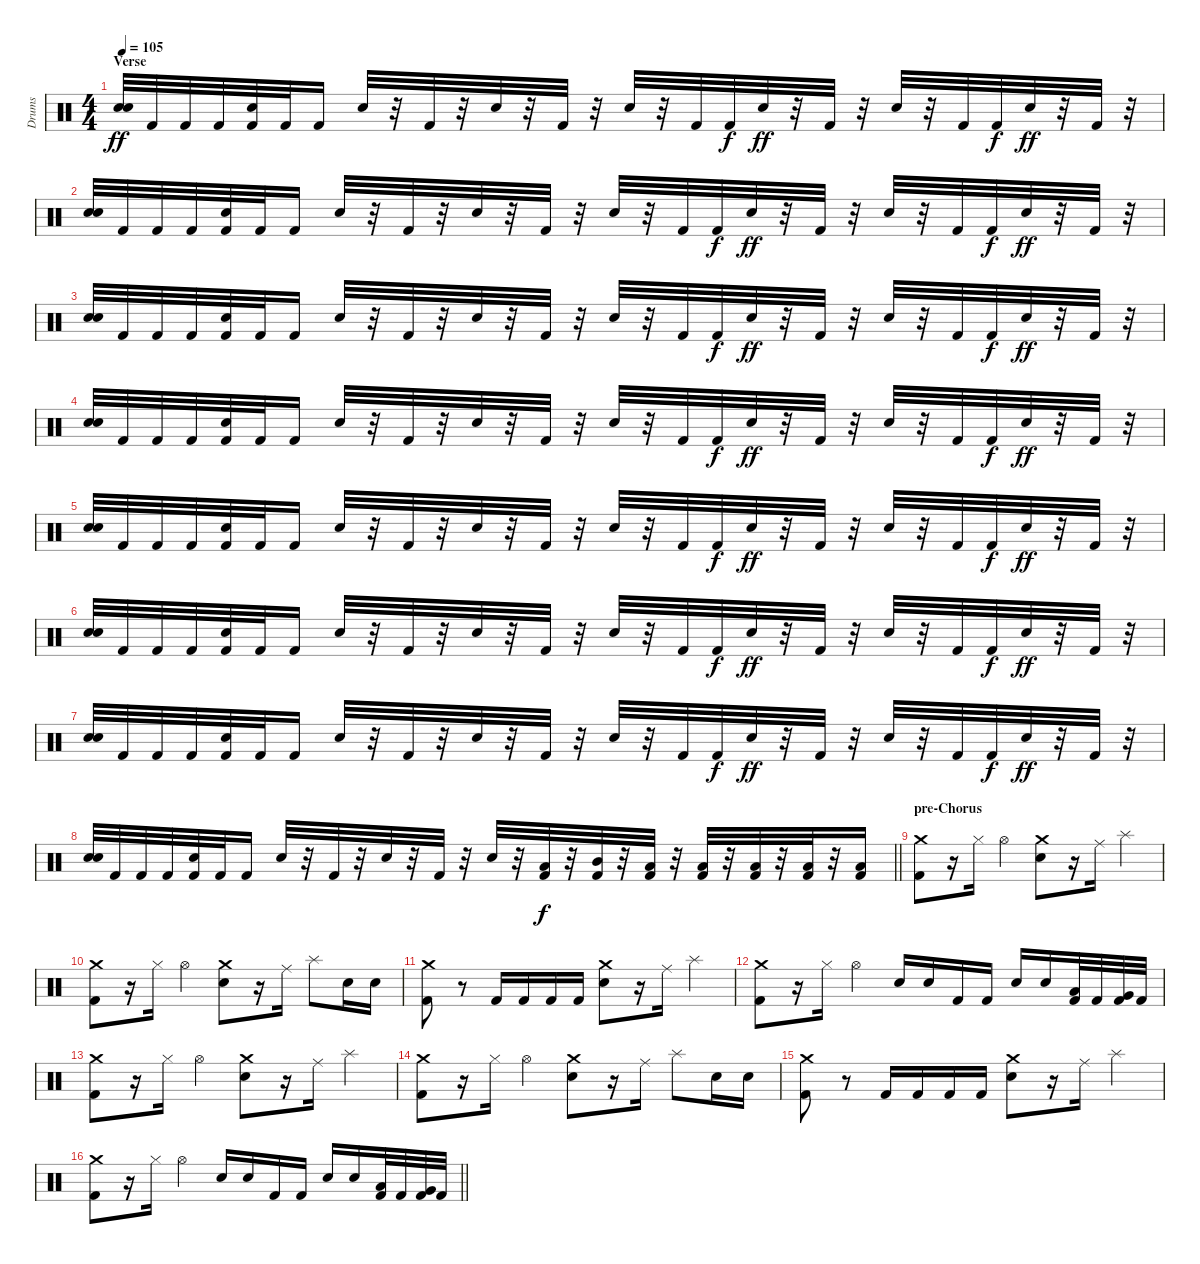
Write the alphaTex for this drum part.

\track ("Drums" "Drums") {instrument percussion}
\staff {score}
\articulation defaults
\ts (4 4)
\section ("" "Verse")
\tempo 105
\clef neutral
\ks c
("Snare (hit) 2" "Snare (hit) 2").32{dy ff} "Kick (hit) 2".32 "Kick (hit) 2".32 "Kick (hit) 2".32 ("Snare (hit) 2" "Kick (hit) 2").32 "Kick (hit) 2".32 "Kick (hit) 2".16 "Snare (hit) 2".32 r.32 "Kick (hit) 2".32 r.32 "Snare (hit) 2".32 r.32 "Kick (hit) 2".32 r.32 "Snare (hit) 2".32 r.32 "Kick (hit) 2".32 "Kick (hit) 2".32{dy f} "Snare (hit) 2".32{dy ff} r.32 "Kick (hit) 2".32 r.32 "Snare (hit) 2".32 r.32 "Kick (hit) 2".32 "Kick (hit) 2".32{dy f} "Snare (hit) 2".32{dy ff} r.32 "Kick (hit) 2".32 r.32 |
("Snare (hit) 2" "Snare (hit) 2").32 "Kick (hit) 2".32 "Kick (hit) 2".32 "Kick (hit) 2".32 ("Snare (hit) 2" "Kick (hit) 2").32 "Kick (hit) 2".32 "Kick (hit) 2".16 "Snare (hit) 2".32 r.32 "Kick (hit) 2".32 r.32 "Snare (hit) 2".32 r.32 "Kick (hit) 2".32 r.32 "Snare (hit) 2".32 r.32 "Kick (hit) 2".32 "Kick (hit) 2".32{dy f} "Snare (hit) 2".32{dy ff} r.32 "Kick (hit) 2".32 r.32 "Snare (hit) 2".32 r.32 "Kick (hit) 2".32 "Kick (hit) 2".32{dy f} "Snare (hit) 2".32{dy ff} r.32 "Kick (hit) 2".32 r.32 |
("Snare (hit) 2" "Snare (hit) 2").32 "Kick (hit) 2".32 "Kick (hit) 2".32 "Kick (hit) 2".32 ("Snare (hit) 2" "Kick (hit) 2").32 "Kick (hit) 2".32 "Kick (hit) 2".16 "Snare (hit) 2".32 r.32 "Kick (hit) 2".32 r.32 "Snare (hit) 2".32 r.32 "Kick (hit) 2".32 r.32 "Snare (hit) 2".32 r.32 "Kick (hit) 2".32 "Kick (hit) 2".32{dy f} "Snare (hit) 2".32{dy ff} r.32 "Kick (hit) 2".32 r.32 "Snare (hit) 2".32 r.32 "Kick (hit) 2".32 "Kick (hit) 2".32{dy f} "Snare (hit) 2".32{dy ff} r.32 "Kick (hit) 2".32 r.32 |
("Snare (hit) 2" "Snare (hit) 2").32 "Kick (hit) 2".32 "Kick (hit) 2".32 "Kick (hit) 2".32 ("Snare (hit) 2" "Kick (hit) 2").32 "Kick (hit) 2".32 "Kick (hit) 2".16 "Snare (hit) 2".32 r.32 "Kick (hit) 2".32 r.32 "Snare (hit) 2".32 r.32 "Kick (hit) 2".32 r.32 "Snare (hit) 2".32 r.32 "Kick (hit) 2".32 "Kick (hit) 2".32{dy f} "Snare (hit) 2".32{dy ff} r.32 "Kick (hit) 2".32 r.32 "Snare (hit) 2".32 r.32 "Kick (hit) 2".32 "Kick (hit) 2".32{dy f} "Snare (hit) 2".32{dy ff} r.32 "Kick (hit) 2".32 r.32 |
("Snare (hit) 2" "Snare (hit) 2").32 "Kick (hit) 2".32 "Kick (hit) 2".32 "Kick (hit) 2".32 ("Snare (hit) 2" "Kick (hit) 2").32 "Kick (hit) 2".32 "Kick (hit) 2".16 "Snare (hit) 2".32 r.32 "Kick (hit) 2".32 r.32 "Snare (hit) 2".32 r.32 "Kick (hit) 2".32 r.32 "Snare (hit) 2".32 r.32 "Kick (hit) 2".32 "Kick (hit) 2".32{dy f} "Snare (hit) 2".32{dy ff} r.32 "Kick (hit) 2".32 r.32 "Snare (hit) 2".32 r.32 "Kick (hit) 2".32 "Kick (hit) 2".32{dy f} "Snare (hit) 2".32{dy ff} r.32 "Kick (hit) 2".32 r.32 |
("Snare (hit) 2" "Snare (hit) 2").32 "Kick (hit) 2".32 "Kick (hit) 2".32 "Kick (hit) 2".32 ("Snare (hit) 2" "Kick (hit) 2").32 "Kick (hit) 2".32 "Kick (hit) 2".16 "Snare (hit) 2".32 r.32 "Kick (hit) 2".32 r.32 "Snare (hit) 2".32 r.32 "Kick (hit) 2".32 r.32 "Snare (hit) 2".32 r.32 "Kick (hit) 2".32 "Kick (hit) 2".32{dy f} "Snare (hit) 2".32{dy ff} r.32 "Kick (hit) 2".32 r.32 "Snare (hit) 2".32 r.32 "Kick (hit) 2".32 "Kick (hit) 2".32{dy f} "Snare (hit) 2".32{dy ff} r.32 "Kick (hit) 2".32 r.32 |
("Snare (hit) 2" "Snare (hit) 2").32 "Kick (hit) 2".32 "Kick (hit) 2".32 "Kick (hit) 2".32 ("Snare (hit) 2" "Kick (hit) 2").32 "Kick (hit) 2".32 "Kick (hit) 2".16 "Snare (hit) 2".32 r.32 "Kick (hit) 2".32 r.32 "Snare (hit) 2".32 r.32 "Kick (hit) 2".32 r.32 "Snare (hit) 2".32 r.32 "Kick (hit) 2".32 "Kick (hit) 2".32{dy f} "Snare (hit) 2".32{dy ff} r.32 "Kick (hit) 2".32 r.32 "Snare (hit) 2".32 r.32 "Kick (hit) 2".32 "Kick (hit) 2".32{dy f} "Snare (hit) 2".32{dy ff} r.32 "Kick (hit) 2".32 r.32 |
\barLineRight lightlight
("Snare (hit) 2" "Snare (hit) 2").32 "Kick (hit) 2".32 "Kick (hit) 2".32 "Kick (hit) 2".32 ("Snare (hit) 2" "Kick (hit) 2").32 "Kick (hit) 2".32 "Kick (hit) 2".16 "Snare (hit) 2".32 r.32 "Kick (hit) 2".32 r.32 "Snare (hit) 2".32 r.32 "Kick (hit) 2".32 r.32 "Snare (hit) 2".32 r.32 ("Low Tom (hit)" "Kick (hit) 2").32{dy f} r.32 ("Mid Tom (hit)" "Kick (hit) 2").32 r.32 ("Low Tom (hit)" "Kick (hit) 2").32 r.32 ("Low Tom (hit)" "Kick (hit) 2").32 r.32 ("Low Tom (hit)" "Kick (hit) 2").32 r.32 ("Low Floor Tom (hit)" "Kick (hit) 2").32 r.32 ("Low Floor Tom (hit)" "Kick (hit) 2").16 |
\section ("" "pre-Chorus")
("Crash medium (hit)" "Kick (hit) 2").8 r.16 "Hi-Hat (closed)".16 "Hi-Hat (open)".4 ("Crash medium (hit)" "Snare (hit) 2").8 r.16 "Ride (middle)".16 "Splash (hit)".4 |
("Crash medium (hit)" "Kick (hit) 2").8 r.16 "Hi-Hat (closed)".16 "Hi-Hat (open)".4 ("Crash medium (hit)" "Snare (hit) 2").8 r.16 "Ride (middle)".16 "Splash (hit)".8 "Snare (hit) 2".16 "Snare (hit) 2".16 |
("Crash medium (hit)" "Kick (hit) 2").8 r.8 "Kick (hit) 2".16 "Kick (hit) 2".16 "Kick (hit) 2".16 "Kick (hit) 2".16 ("Crash medium (hit)" "Snare (hit) 2").8 r.16 "Ride (middle)".16 "Splash (hit)".4 |
("Crash medium (hit)" "Kick (hit) 2").8 r.16 "Hi-Hat (closed)".16 "Hi-Hat (open)".4 "Snare (hit) 2".16 "Snare (hit) 2".16 "Kick (hit) 2".16 "Kick (hit) 2".16 "Snare (hit) 2".16 "Snare (hit) 2".16 ("Low Tom (hit)" "Kick (hit) 2").32 "Kick (hit) 2".32 ("Very Low Tom (hit)" "Kick (hit) 2").32 "Kick (hit) 2".32 |
("Crash medium (hit)" "Kick (hit) 2").8 r.16 "Hi-Hat (closed)".16 "Hi-Hat (open)".4 ("Crash medium (hit)" "Snare (hit) 2").8 r.16 "Ride (middle)".16 "Splash (hit)".4 |
("Crash medium (hit)" "Kick (hit) 2").8 r.16 "Hi-Hat (closed)".16 "Hi-Hat (open)".4 ("Crash medium (hit)" "Snare (hit) 2").8 r.16 "Ride (middle)".16 "Splash (hit)".8 "Snare (hit) 2".16 "Snare (hit) 2".16 |
("Crash medium (hit)" "Kick (hit) 2").8 r.8 "Kick (hit) 2".16 "Kick (hit) 2".16 "Kick (hit) 2".16 "Kick (hit) 2".16 ("Crash medium (hit)" "Snare (hit) 2").8 r.16 "Ride (middle)".16 "Splash (hit)".4 |
\barLineRight lightlight
("Crash medium (hit)" "Kick (hit) 2").8 r.16 "Hi-Hat (closed)".16 "Hi-Hat (open)".4 "Snare (hit) 2".16 "Snare (hit) 2".16 "Kick (hit) 2".16 "Kick (hit) 2".16 "Snare (hit) 2".16 "Snare (hit) 2".16 ("Low Tom (hit)" "Kick (hit) 2").32 "Kick (hit) 2".32 ("Very Low Tom (hit)" "Kick (hit) 2").32 "Kick (hit) 2".32
